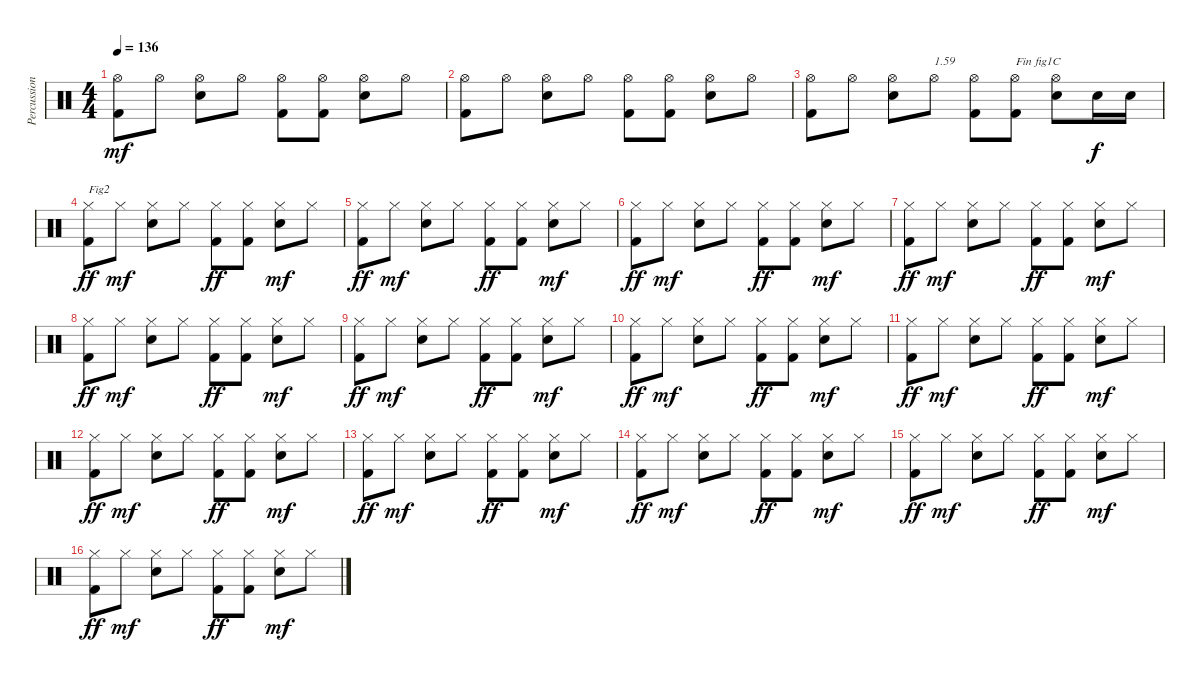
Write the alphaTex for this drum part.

\track ("Percussions" "Percussion") {instrument percussion}
\staff {score}
\articulation defaults
\ts (4 4)
\tempo 136
\clef neutral
\ks c
("Kick (hit) 2" "Hi-Hat (open)").8{dy mf} "Hi-Hat (open)".8 ("Electric Snare (hit)" "Hi-Hat (open)").8 "Hi-Hat (open)".8 ("Kick (hit) 2" "Hi-Hat (open)").8 ("Kick (hit) 2" "Hi-Hat (open)").8 ("Electric Snare (hit)" "Hi-Hat (open)").8 "Hi-Hat (open)".8 |
("Kick (hit) 2" "Hi-Hat (open)").8 "Hi-Hat (open)".8 ("Electric Snare (hit)" "Hi-Hat (open)").8 "Hi-Hat (open)".8 ("Kick (hit) 2" "Hi-Hat (open)").8 ("Kick (hit) 2" "Hi-Hat (open)").8 ("Electric Snare (hit)" "Hi-Hat (open)").8 "Hi-Hat (open)".8 |
("Kick (hit) 2" "Hi-Hat (open)").8 "Hi-Hat (open)".8 ("Electric Snare (hit)" "Hi-Hat (open)").8 "Hi-Hat (open)".8{txt "1.59"} ("Kick (hit) 2" "Hi-Hat (open)").8 ("Kick (hit) 2" "Hi-Hat (open)").8{txt "Fin fig1C"} ("Electric Snare (hit)" "Hi-Hat (open)").8 "Electric Snare (hit)".16{dy f} "Electric Snare (hit)".16 |
("Kick (hit) 2" "Hi-Hat (closed)").8{txt "Fig2" dy ff} "Hi-Hat (closed)".8{dy mf} ("Electric Snare (hit)" "Hi-Hat (closed)").8 "Hi-Hat (closed)".8 ("Kick (hit) 2" "Hi-Hat (closed)").8{dy ff} ("Kick (hit) 2" "Hi-Hat (closed)").8 ("Electric Snare (hit)" "Hi-Hat (closed)").8{dy mf} "Hi-Hat (closed)".8 |
("Kick (hit) 2" "Hi-Hat (closed)").8{dy ff} "Hi-Hat (closed)".8{dy mf} ("Electric Snare (hit)" "Hi-Hat (closed)").8 "Hi-Hat (closed)".8 ("Kick (hit) 2" "Hi-Hat (closed)").8{dy ff} ("Kick (hit) 2" "Hi-Hat (closed)").8 ("Electric Snare (hit)" "Hi-Hat (closed)").8{dy mf} "Hi-Hat (closed)".8 |
("Kick (hit) 2" "Hi-Hat (closed)").8{dy ff} "Hi-Hat (closed)".8{dy mf} ("Electric Snare (hit)" "Hi-Hat (closed)").8 "Hi-Hat (closed)".8 ("Kick (hit) 2" "Hi-Hat (closed)").8{dy ff} ("Kick (hit) 2" "Hi-Hat (closed)").8 ("Electric Snare (hit)" "Hi-Hat (closed)").8{dy mf} "Hi-Hat (closed)".8 |
("Kick (hit) 2" "Hi-Hat (closed)").8{dy ff} "Hi-Hat (closed)".8{dy mf} ("Electric Snare (hit)" "Hi-Hat (closed)").8 "Hi-Hat (closed)".8 ("Kick (hit) 2" "Hi-Hat (closed)").8{dy ff} ("Kick (hit) 2" "Hi-Hat (closed)").8 ("Electric Snare (hit)" "Hi-Hat (closed)").8{dy mf} "Hi-Hat (closed)".8 |
("Kick (hit) 2" "Hi-Hat (closed)").8{dy ff} "Hi-Hat (closed)".8{dy mf} ("Electric Snare (hit)" "Hi-Hat (closed)").8 "Hi-Hat (closed)".8 ("Kick (hit) 2" "Hi-Hat (closed)").8{dy ff} ("Kick (hit) 2" "Hi-Hat (closed)").8 ("Electric Snare (hit)" "Hi-Hat (closed)").8{dy mf} "Hi-Hat (closed)".8 |
("Kick (hit) 2" "Hi-Hat (closed)").8{dy ff} "Hi-Hat (closed)".8{dy mf} ("Electric Snare (hit)" "Hi-Hat (closed)").8 "Hi-Hat (closed)".8 ("Kick (hit) 2" "Hi-Hat (closed)").8{dy ff} ("Kick (hit) 2" "Hi-Hat (closed)").8 ("Electric Snare (hit)" "Hi-Hat (closed)").8{dy mf} "Hi-Hat (closed)".8 |
("Kick (hit) 2" "Hi-Hat (closed)").8{dy ff} "Hi-Hat (closed)".8{dy mf} ("Electric Snare (hit)" "Hi-Hat (closed)").8 "Hi-Hat (closed)".8 ("Kick (hit) 2" "Hi-Hat (closed)").8{dy ff} ("Kick (hit) 2" "Hi-Hat (closed)").8 ("Electric Snare (hit)" "Hi-Hat (closed)").8{dy mf} "Hi-Hat (closed)".8 |
("Kick (hit) 2" "Hi-Hat (closed)").8{dy ff} "Hi-Hat (closed)".8{dy mf} ("Electric Snare (hit)" "Hi-Hat (closed)").8 "Hi-Hat (closed)".8 ("Kick (hit) 2" "Hi-Hat (closed)").8{dy ff} ("Kick (hit) 2" "Hi-Hat (closed)").8 ("Electric Snare (hit)" "Hi-Hat (closed)").8{dy mf} "Hi-Hat (closed)".8 |
("Kick (hit) 2" "Hi-Hat (closed)").8{dy ff} "Hi-Hat (closed)".8{dy mf} ("Electric Snare (hit)" "Hi-Hat (closed)").8 "Hi-Hat (closed)".8 ("Kick (hit) 2" "Hi-Hat (closed)").8{dy ff} ("Kick (hit) 2" "Hi-Hat (closed)").8 ("Electric Snare (hit)" "Hi-Hat (closed)").8{dy mf} "Hi-Hat (closed)".8 |
("Kick (hit) 2" "Hi-Hat (closed)").8{dy ff} "Hi-Hat (closed)".8{dy mf} ("Electric Snare (hit)" "Hi-Hat (closed)").8 "Hi-Hat (closed)".8 ("Kick (hit) 2" "Hi-Hat (closed)").8{dy ff} ("Kick (hit) 2" "Hi-Hat (closed)").8 ("Electric Snare (hit)" "Hi-Hat (closed)").8{dy mf} "Hi-Hat (closed)".8 |
("Kick (hit) 2" "Hi-Hat (closed)").8{dy ff} "Hi-Hat (closed)".8{dy mf} ("Electric Snare (hit)" "Hi-Hat (closed)").8 "Hi-Hat (closed)".8 ("Kick (hit) 2" "Hi-Hat (closed)").8{dy ff} ("Kick (hit) 2" "Hi-Hat (closed)").8 ("Electric Snare (hit)" "Hi-Hat (closed)").8{dy mf} "Hi-Hat (closed)".8 |
("Kick (hit) 2" "Hi-Hat (closed)").8{dy ff} "Hi-Hat (closed)".8{dy mf} ("Electric Snare (hit)" "Hi-Hat (closed)").8 "Hi-Hat (closed)".8 ("Kick (hit) 2" "Hi-Hat (closed)").8{dy ff} ("Kick (hit) 2" "Hi-Hat (closed)").8 ("Electric Snare (hit)" "Hi-Hat (closed)").8{dy mf} "Hi-Hat (closed)".8 |
("Kick (hit) 2" "Hi-Hat (closed)").8{dy ff} "Hi-Hat (closed)".8{dy mf} ("Electric Snare (hit)" "Hi-Hat (closed)").8 "Hi-Hat (closed)".8 ("Kick (hit) 2" "Hi-Hat (closed)").8{dy ff} ("Kick (hit) 2" "Hi-Hat (closed)").8 ("Electric Snare (hit)" "Hi-Hat (closed)").8{dy mf} "Hi-Hat (closed)".8
